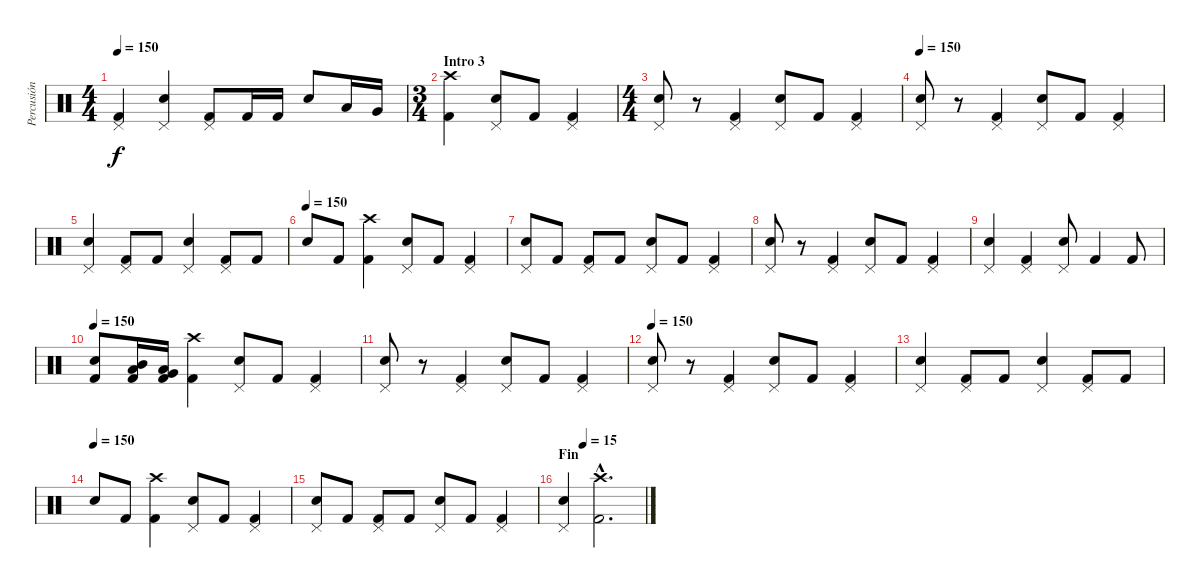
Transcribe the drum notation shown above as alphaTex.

\track ("Percusión" "Percusión") {instrument percussion}
\staff {score}
\articulation defaults
\ts (4 4)
\tempo 150
\clef neutral
\ks c
("Pedal Hi-Hat (hit)" "Kick (hit) 2").4{dy f} ("Pedal Hi-Hat (hit)" "Electric Snare (hit)").4 ("Pedal Hi-Hat (hit)" "Kick (hit) 2").8 "Kick (hit) 2".16 "Kick (hit) 2".16 "Electric Snare (hit)".8 "Low Tom (hit)".16 "Very Low Tom (hit)".16 |
\ts (3 4)
\section ("" "Intro 3")
("Crash high (hit)" "Kick (hit) 2").4 ("Pedal Hi-Hat (hit)" "Electric Snare (hit)").8 "Kick (hit) 2".8 ("Pedal Hi-Hat (hit)" "Kick (hit) 2").4 |
\ts (4 4)
("Pedal Hi-Hat (hit)" "Electric Snare (hit)").8 r.8 ("Pedal Hi-Hat (hit)" "Kick (hit) 2").4 ("Pedal Hi-Hat (hit)" "Electric Snare (hit)").8 "Kick (hit) 2".8 ("Pedal Hi-Hat (hit)" "Kick (hit) 2").4 |
\tempo 150
("Pedal Hi-Hat (hit)" "Electric Snare (hit)").8 r.8 ("Pedal Hi-Hat (hit)" "Kick (hit) 2").4 ("Pedal Hi-Hat (hit)" "Electric Snare (hit)").8 "Kick (hit) 2".8 ("Pedal Hi-Hat (hit)" "Kick (hit) 2").4 |
("Pedal Hi-Hat (hit)" "Electric Snare (hit)").4 ("Pedal Hi-Hat (hit)" "Kick (hit) 2").8 "Kick (hit) 2".8 ("Pedal Hi-Hat (hit)" "Electric Snare (hit)").4 ("Pedal Hi-Hat (hit)" "Kick (hit) 2").8 "Kick (hit) 2".8 |
\tempo (150)
"Electric Snare (hit)".8 "Kick (hit) 2".8 ("Crash high (hit)" "Kick (hit) 2").4 ("Pedal Hi-Hat (hit)" "Electric Snare (hit)").8 "Kick (hit) 2".8 ("Pedal Hi-Hat (hit)" "Kick (hit) 2").4 |
("Pedal Hi-Hat (hit)" "Electric Snare (hit)").8 "Kick (hit) 2".8 ("Pedal Hi-Hat (hit)" "Kick (hit) 2").8 "Kick (hit) 2".8 ("Pedal Hi-Hat (hit)" "Electric Snare (hit)").8 "Kick (hit) 2".8 ("Pedal Hi-Hat (hit)" "Kick (hit) 2").4 |
("Pedal Hi-Hat (hit)" "Electric Snare (hit)").8 r.8 ("Pedal Hi-Hat (hit)" "Kick (hit) 2").4 ("Pedal Hi-Hat (hit)" "Electric Snare (hit)").8 "Kick (hit) 2".8 ("Pedal Hi-Hat (hit)" "Kick (hit) 2").4 |
("Pedal Hi-Hat (hit)" "Electric Snare (hit)").4 ("Pedal Hi-Hat (hit)" "Kick (hit) 2").4 ("Pedal Hi-Hat (hit)" "Electric Snare (hit)").8 "Kick (hit) 2".4 "Kick (hit) 2".8 |
\tempo 150
("Electric Snare (hit)" "Kick (hit) 2").8 ("Mid Tom (hit)" "Low Tom (hit)" "Kick (hit) 2").16 ("Low Tom (hit)" "Very Low Tom (hit)" "Kick (hit) 2").16 ("Crash high (hit)" "Kick (hit) 2").4 ("Pedal Hi-Hat (hit)" "Electric Snare (hit)").8 "Kick (hit) 2".8 ("Pedal Hi-Hat (hit)" "Kick (hit) 2").4 |
("Pedal Hi-Hat (hit)" "Electric Snare (hit)").8 r.8 ("Pedal Hi-Hat (hit)" "Kick (hit) 2").4 ("Pedal Hi-Hat (hit)" "Electric Snare (hit)").8 "Kick (hit) 2".8 ("Pedal Hi-Hat (hit)" "Kick (hit) 2").4 |
\tempo 150
("Pedal Hi-Hat (hit)" "Electric Snare (hit)").8 r.8 ("Pedal Hi-Hat (hit)" "Kick (hit) 2").4 ("Pedal Hi-Hat (hit)" "Electric Snare (hit)").8 "Kick (hit) 2".8 ("Pedal Hi-Hat (hit)" "Kick (hit) 2").4 |
("Pedal Hi-Hat (hit)" "Electric Snare (hit)").4 ("Pedal Hi-Hat (hit)" "Kick (hit) 2").8 "Kick (hit) 2".8 ("Pedal Hi-Hat (hit)" "Electric Snare (hit)").4 ("Pedal Hi-Hat (hit)" "Kick (hit) 2").8 "Kick (hit) 2".8 |
\tempo (150)
"Electric Snare (hit)".8 "Kick (hit) 2".8 ("Crash high (hit)" "Kick (hit) 2").4 ("Pedal Hi-Hat (hit)" "Electric Snare (hit)").8 "Kick (hit) 2".8 ("Pedal Hi-Hat (hit)" "Kick (hit) 2").4 |
("Pedal Hi-Hat (hit)" "Electric Snare (hit)").8 "Kick (hit) 2".8 ("Pedal Hi-Hat (hit)" "Kick (hit) 2").8 "Kick (hit) 2".8 ("Pedal Hi-Hat (hit)" "Electric Snare (hit)").8 "Kick (hit) 2".8 ("Pedal Hi-Hat (hit)" "Kick (hit) 2").4 |
\section ("" "Fin")
\tempo (15 0.25)
("Pedal Hi-Hat (hit)" "Electric Snare (hit)").4 ("Crash high (hit)"{hac} "Kick (hit) 2"{hac}).2{d}
